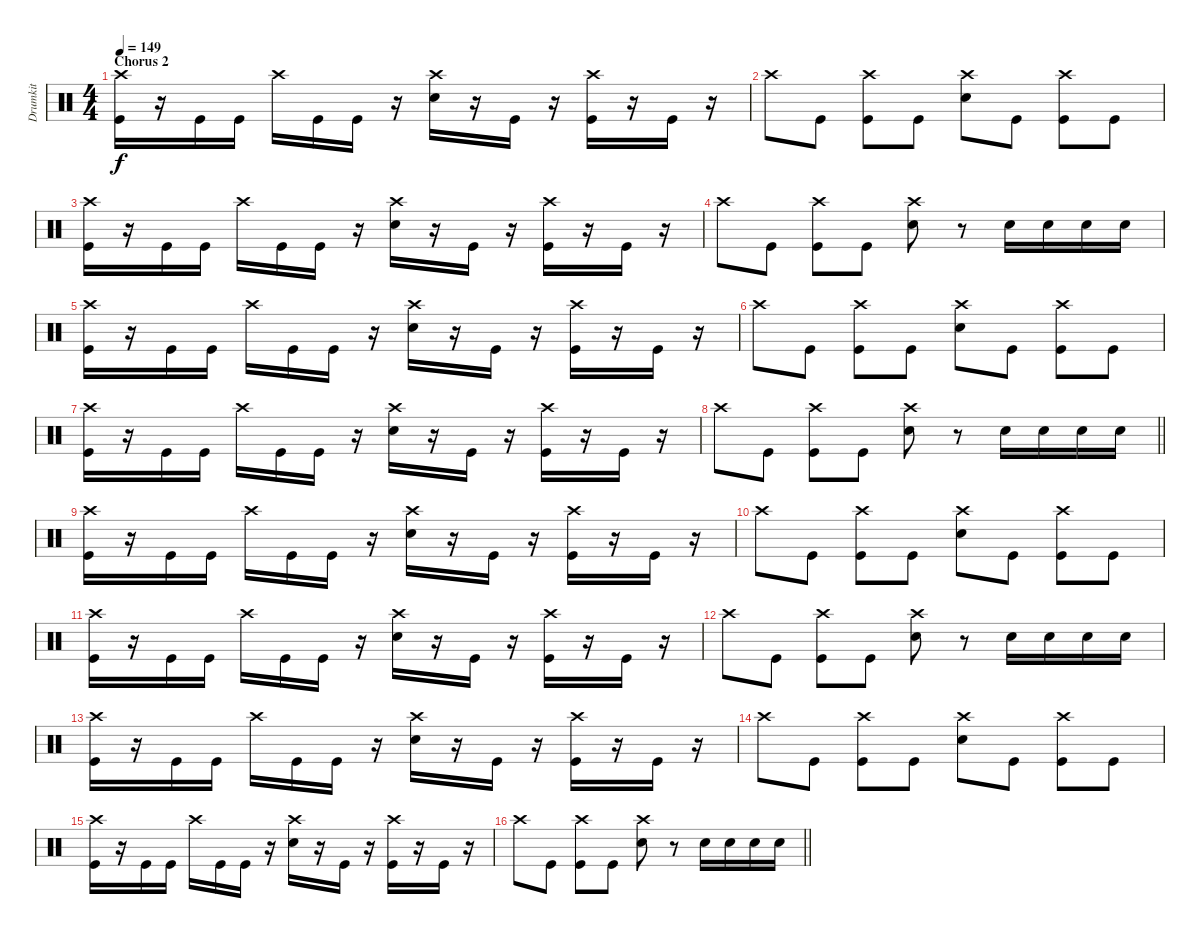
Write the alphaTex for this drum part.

\track ("Drumkit" "Drumkit") {instrument percussion}
\staff {score}
\articulation defaults
\ts (4 4)
\section ("" "Chorus 2")
\tempo 149
\clef neutral
\ks c
("Crash high (hit)" "Kick (hit)").16{dy f} r.16 "Kick (hit)".16 "Kick (hit)".16 "Crash high (hit)".16 "Kick (hit)".16 "Kick (hit)".16 r.16 ("Crash high (hit)" "Snare (hit) 2").16 r.16 "Kick (hit)".16 r.16 ("Crash high (hit)" "Kick (hit)").16 r.16 "Kick (hit)".16 r.16 |
"Crash high (hit)".8 "Kick (hit)".8 ("Crash high (hit)" "Kick (hit)").8 "Kick (hit)".8 ("Crash high (hit)" "Snare (hit) 2").8 "Kick (hit)".8 ("Crash high (hit)" "Kick (hit)").8 "Kick (hit)".8 |
("Crash high (hit)" "Kick (hit)").16 r.16 "Kick (hit)".16 "Kick (hit)".16 "Crash high (hit)".16 "Kick (hit)".16 "Kick (hit)".16 r.16 ("Crash high (hit)" "Snare (hit) 2").16 r.16 "Kick (hit)".16 r.16 ("Crash high (hit)" "Kick (hit)").16 r.16 "Kick (hit)".16 r.16 |
"Crash high (hit)".8 "Kick (hit)".8 ("Crash high (hit)" "Kick (hit)").8 "Kick (hit)".8 ("Crash high (hit)" "Snare (hit) 2").8 r.8 "Snare (hit) 2".16 "Snare (hit) 2".16 "Snare (hit) 2".16 "Snare (hit) 2".16 |
("Crash high (hit)" "Kick (hit)").16 r.16 "Kick (hit)".16 "Kick (hit)".16 "Crash high (hit)".16 "Kick (hit)".16 "Kick (hit)".16 r.16 ("Crash high (hit)" "Snare (hit) 2").16 r.16 "Kick (hit)".16 r.16 ("Crash high (hit)" "Kick (hit)").16 r.16 "Kick (hit)".16 r.16 |
"Crash high (hit)".8 "Kick (hit)".8 ("Crash high (hit)" "Kick (hit)").8 "Kick (hit)".8 ("Crash high (hit)" "Snare (hit) 2").8 "Kick (hit)".8 ("Crash high (hit)" "Kick (hit)").8 "Kick (hit)".8 |
("Crash high (hit)" "Kick (hit)").16 r.16 "Kick (hit)".16 "Kick (hit)".16 "Crash high (hit)".16 "Kick (hit)".16 "Kick (hit)".16 r.16 ("Crash high (hit)" "Snare (hit) 2").16 r.16 "Kick (hit)".16 r.16 ("Crash high (hit)" "Kick (hit)").16 r.16 "Kick (hit)".16 r.16 |
\barLineRight lightlight "Crash high (hit)".8 "Kick (hit)".8
("Crash high (hit)" "Kick (hit)").8 "Kick (hit)".8 ("Crash high (hit)" "Snare (hit) 2").8 r.8 "Snare (hit) 2".16 "Snare (hit) 2".16 "Snare (hit) 2".16 "Snare (hit) 2".16 |
("Crash high (hit)" "Kick (hit)").16 r.16 "Kick (hit)".16 "Kick (hit)".16 "Crash high (hit)".16 "Kick (hit)".16 "Kick (hit)".16 r.16 ("Crash high (hit)" "Snare (hit) 2").16 r.16 "Kick (hit)".16 r.16 ("Crash high (hit)" "Kick (hit)").16 r.16 "Kick (hit)".16 r.16 |
"Crash high (hit)".8 "Kick (hit)".8 ("Crash high (hit)" "Kick (hit)").8 "Kick (hit)".8 ("Crash high (hit)" "Snare (hit) 2").8 "Kick (hit)".8 ("Crash high (hit)" "Kick (hit)").8 "Kick (hit)".8 |
("Crash high (hit)" "Kick (hit)").16 r.16 "Kick (hit)".16 "Kick (hit)".16 "Crash high (hit)".16 "Kick (hit)".16 "Kick (hit)".16 r.16 ("Crash high (hit)" "Snare (hit) 2").16 r.16 "Kick (hit)".16 r.16 ("Crash high (hit)" "Kick (hit)").16 r.16 "Kick (hit)".16 r.16 |
"Crash high (hit)".8 "Kick (hit)".8 ("Crash high (hit)" "Kick (hit)").8 "Kick (hit)".8 ("Crash high (hit)" "Snare (hit) 2").8 r.8 "Snare (hit) 2".16 "Snare (hit) 2".16 "Snare (hit) 2".16 "Snare (hit) 2".16 |
("Crash high (hit)" "Kick (hit)").16 r.16 "Kick (hit)".16 "Kick (hit)".16 "Crash high (hit)".16 "Kick (hit)".16 "Kick (hit)".16 r.16 ("Crash high (hit)" "Snare (hit) 2").16 r.16 "Kick (hit)".16 r.16 ("Crash high (hit)" "Kick (hit)").16 r.16 "Kick (hit)".16 r.16 |
"Crash high (hit)".8 "Kick (hit)".8 ("Crash high (hit)" "Kick (hit)").8 "Kick (hit)".8 ("Crash high (hit)" "Snare (hit) 2").8 "Kick (hit)".8 ("Crash high (hit)" "Kick (hit)").8 "Kick (hit)".8 |
("Crash high (hit)" "Kick (hit)").16 r.16 "Kick (hit)".16 "Kick (hit)".16 "Crash high (hit)".16 "Kick (hit)".16 "Kick (hit)".16 r.16 ("Crash high (hit)" "Snare (hit) 2").16 r.16 "Kick (hit)".16 r.16 ("Crash high (hit)" "Kick (hit)").16 r.16 "Kick (hit)".16 r.16 |
\barLineRight lightlight "Crash high (hit)".8 "Kick (hit)".8
("Crash high (hit)" "Kick (hit)").8 "Kick (hit)".8 ("Crash high (hit)" "Snare (hit) 2").8 r.8 "Snare (hit) 2".16 "Snare (hit) 2".16 "Snare (hit) 2".16 "Snare (hit) 2".16
